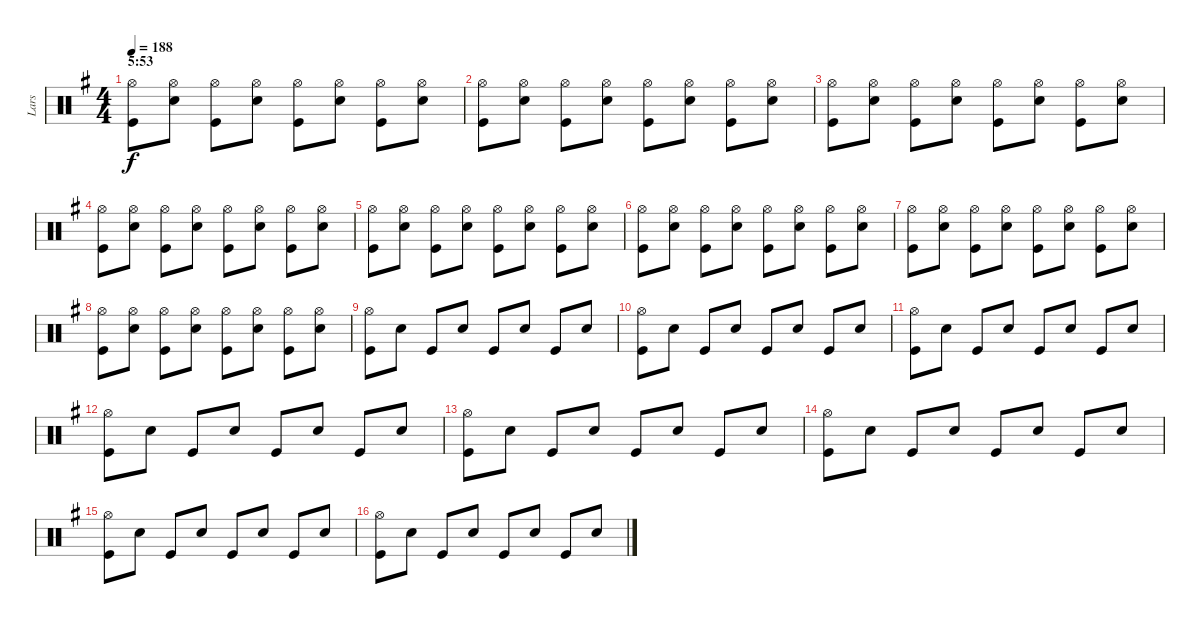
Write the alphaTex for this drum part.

\track ("Lars" "Lars") {instrument percussion}
\staff {score}
\articulation defaults
\ts (4 4)
\section ("" "5:53")
\tempo 188
\clef neutral
\ks eminor
("Hi-Hat (open)" "Kick (hit)").8{dy f} ("Hi-Hat (open)" "Snare (hit) 2").8 ("Hi-Hat (open)" "Kick (hit)").8 ("Hi-Hat (open)" "Snare (hit) 2").8 ("Hi-Hat (open)" "Kick (hit)").8 ("Hi-Hat (open)" "Snare (hit) 2").8 ("Hi-Hat (open)" "Kick (hit)").8 ("Hi-Hat (open)" "Snare (hit) 2").8 |
("Hi-Hat (open)" "Kick (hit)").8 ("Hi-Hat (open)" "Snare (hit) 2").8 ("Hi-Hat (open)" "Kick (hit)").8 ("Hi-Hat (open)" "Snare (hit) 2").8 ("Hi-Hat (open)" "Kick (hit)").8 ("Hi-Hat (open)" "Snare (hit) 2").8 ("Hi-Hat (open)" "Kick (hit)").8 ("Snare (hit) 2" "Hi-Hat (open)").8 |
("Hi-Hat (open)" "Kick (hit)").8 ("Hi-Hat (open)" "Snare (hit) 2").8 ("Hi-Hat (open)" "Kick (hit)").8 ("Hi-Hat (open)" "Snare (hit) 2").8 ("Hi-Hat (open)" "Kick (hit)").8 ("Hi-Hat (open)" "Snare (hit) 2").8 ("Hi-Hat (open)" "Kick (hit)").8 ("Snare (hit) 2" "Hi-Hat (open)").8 |
("Hi-Hat (open)" "Kick (hit)").8 ("Hi-Hat (open)" "Snare (hit) 2").8 ("Hi-Hat (open)" "Kick (hit)").8 ("Hi-Hat (open)" "Snare (hit) 2").8 ("Hi-Hat (open)" "Kick (hit)").8 ("Hi-Hat (open)" "Snare (hit) 2").8 ("Hi-Hat (open)" "Kick (hit)").8 ("Hi-Hat (open)" "Snare (hit) 2").8 |
("Hi-Hat (open)" "Kick (hit)").8 ("Hi-Hat (open)" "Snare (hit) 2").8 ("Hi-Hat (open)" "Kick (hit)").8 ("Hi-Hat (open)" "Snare (hit) 2").8 ("Hi-Hat (open)" "Kick (hit)").8 ("Hi-Hat (open)" "Snare (hit) 2").8 ("Hi-Hat (open)" "Kick (hit)").8 ("Snare (hit) 2" "Hi-Hat (open)").8 |
("Hi-Hat (open)" "Kick (hit)").8 ("Hi-Hat (open)" "Snare (hit) 2").8 ("Hi-Hat (open)" "Kick (hit)").8 ("Hi-Hat (open)" "Snare (hit) 2").8 ("Hi-Hat (open)" "Kick (hit)").8 ("Hi-Hat (open)" "Snare (hit) 2").8 ("Hi-Hat (open)" "Kick (hit)").8 ("Snare (hit) 2" "Hi-Hat (open)").8 |
("Hi-Hat (open)" "Kick (hit)").8 ("Hi-Hat (open)" "Snare (hit) 2").8 ("Hi-Hat (open)" "Kick (hit)").8 ("Hi-Hat (open)" "Snare (hit) 2").8 ("Hi-Hat (open)" "Kick (hit)").8 ("Hi-Hat (open)" "Snare (hit) 2").8 ("Hi-Hat (open)" "Kick (hit)").8 ("Snare (hit) 2" "Hi-Hat (open)").8 |
("Hi-Hat (open)" "Kick (hit)").8 ("Hi-Hat (open)" "Snare (hit) 2").8 ("Hi-Hat (open)" "Kick (hit)").8 ("Hi-Hat (open)" "Snare (hit) 2").8 ("Hi-Hat (open)" "Kick (hit)").8 ("Hi-Hat (open)" "Snare (hit) 2").8 ("Hi-Hat (open)" "Kick (hit)").8 ("Snare (hit) 2" "Hi-Hat (open)").8 |
("Hi-Hat (open)" "Kick (hit)").8 "Snare (hit) 2".8 "Kick (hit)".8 "Snare (hit) 2".8 "Kick (hit)".8 "Snare (hit) 2".8 "Kick (hit)".8 "Snare (hit) 2".8 |
("Hi-Hat (open)" "Kick (hit)").8 "Snare (hit) 2".8 "Kick (hit)".8 "Snare (hit) 2".8 "Kick (hit)".8 "Snare (hit) 2".8 "Kick (hit)".8 "Snare (hit) 2".8 |
("Hi-Hat (open)" "Kick (hit)").8 "Snare (hit) 2".8 "Kick (hit)".8 "Snare (hit) 2".8 "Kick (hit)".8 "Snare (hit) 2".8 "Kick (hit)".8 "Snare (hit) 2".8 |
("Hi-Hat (open)" "Kick (hit)").8 "Snare (hit) 2".8 "Kick (hit)".8 "Snare (hit) 2".8 "Kick (hit)".8 "Snare (hit) 2".8 "Kick (hit)".8 "Snare (hit) 2".8 |
("Hi-Hat (open)" "Kick (hit)").8 "Snare (hit) 2".8 "Kick (hit)".8 "Snare (hit) 2".8 "Kick (hit)".8 "Snare (hit) 2".8 "Kick (hit)".8 "Snare (hit) 2".8 |
("Hi-Hat (open)" "Kick (hit)").8 "Snare (hit) 2".8 "Kick (hit)".8 "Snare (hit) 2".8 "Kick (hit)".8 "Snare (hit) 2".8 "Kick (hit)".8 "Snare (hit) 2".8 |
("Hi-Hat (open)" "Kick (hit)").8 "Snare (hit) 2".8 "Kick (hit)".8 "Snare (hit) 2".8 "Kick (hit)".8 "Snare (hit) 2".8 "Kick (hit)".8 "Snare (hit) 2".8 |
("Hi-Hat (open)" "Kick (hit)").8 "Snare (hit) 2".8 "Kick (hit)".8 "Snare (hit) 2".8 "Kick (hit)".8 "Snare (hit) 2".8 "Kick (hit)".8 "Snare (hit) 2".8
